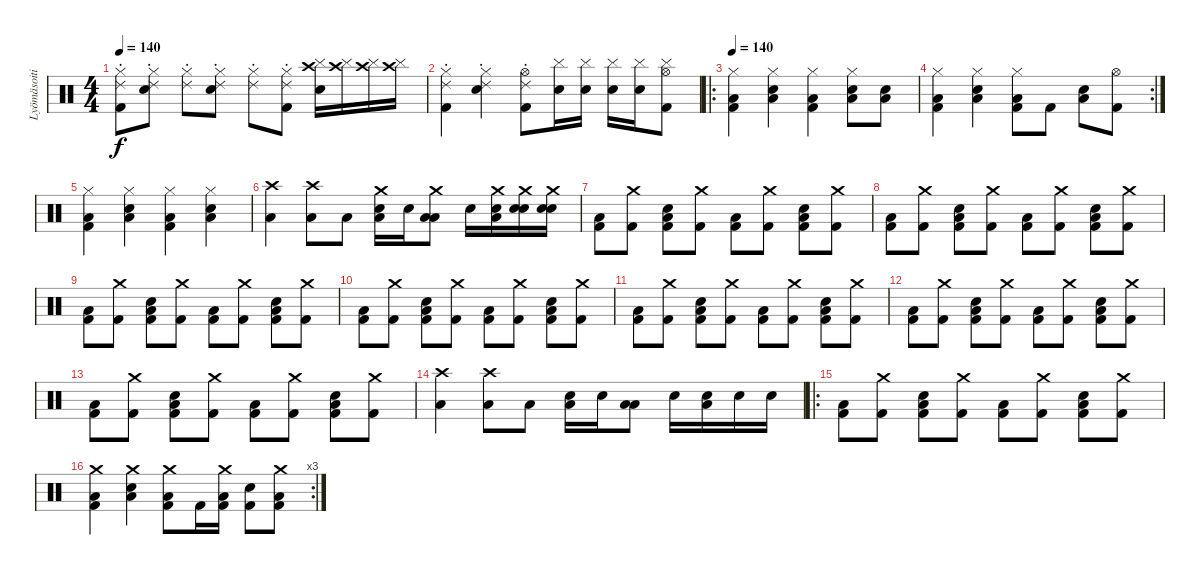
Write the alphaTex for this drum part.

\track ("Lyömäsoitin" "Lyömäsoiti") {instrument percussion}
\staff {score}
\articulation defaults
\ts (4 4)
\tempo 140
\tempo 120
\tempo 140
\clef neutral
\ks c
("Hi-Hat (closed)" "Ride (choke) 2" "Kick (hit) 2").8{dy f} ("Hi-Hat (closed)" "Ride (choke) 2" "Snare (hit) 2").8 ("Hi-Hat (closed)" "Ride (choke) 2").8 ("Hi-Hat (closed)" "Ride (choke) 2" "Snare (hit) 2").8 ("Hi-Hat (closed)" "Ride (choke) 2").8 ("Hi-Hat (closed)" "Ride (choke) 2" "Kick (hit) 2").8 ("Crash high (hit)" "Cymbal (hit)" "Snare (hit) 2").16 ("Crash high (hit)" "Cymbal (hit)").16 ("Crash high (hit)" "Cymbal (hit)").16 ("Crash high (hit)" "Cymbal (hit)").16 |
("Hi-Hat (closed)" "Ride (choke) 2" "Kick (hit) 2").4 ("Hi-Hat (closed)" "Ride (choke) 2" "Snare (hit) 2").4 ("Hi-Hat (open)" "Ride (choke) 2" "Kick (hit) 2").8 ("Cymbal (hit)" "Snare (hit) 2").16 ("Cymbal (hit)" "Snare (hit) 2").16 ("Cymbal (hit)" "Snare (hit) 2").16 ("Cymbal (hit)" "Snare (hit) 2").16 ("Hi-Hat (open)" "Cymbal (hit)" "Kick (hit) 2").8 |
\ro
\tempo 140
("Hi-Hat (closed)" "Low Floor Tom (hit)" "Kick (hit) 2").4 ("Hi-Hat (closed)" "Low Floor Tom (hit)" "Snare (hit) 2").4 ("Hi-Hat (closed)" "Low Floor Tom (hit)" "Kick (hit) 2").4 ("Hi-Hat (closed)" "Low Floor Tom (hit)" "Snare (hit) 2").8 ("Low Tom (hit)" "Snare (hit) 2").8 |
\rc 2
("Hi-Hat (closed)" "Low Floor Tom (hit)" "Kick (hit) 2").4 ("Hi-Hat (closed)" "Low Floor Tom (hit)" "Snare (hit) 2").4 ("Hi-Hat (closed)" "Low Floor Tom (hit)" "Kick (hit) 2").8 "Kick (hit) 2".8 ("Low Floor Tom (hit)" "Snare (hit) 2").8 ("Hi-Hat (open)" "Kick (hit) 2").8 |
("Hi-Hat (closed)" "Low Floor Tom (hit)" "Kick (hit) 2").4 ("Hi-Hat (closed)" "Low Floor Tom (hit)" "Snare (hit) 2").4 ("Hi-Hat (closed)" "Low Floor Tom (hit)" "Kick (hit) 2").4 ("Hi-Hat (closed)" "Low Floor Tom (hit)" "Snare (hit) 2").4 |
("Crash high (hit)" "Low Floor Tom (hit)").4 ("Crash high (hit)" "Low Floor Tom (hit)").8 "Low Tom (hit)".8 ("Crash medium (hit)" "Low Floor Tom (hit)" "Snare (hit) 2").16 "Snare (hit) 2".16 ("Crash medium (hit)" "Low Floor Tom (hit)" "Low Tom (hit)").8 "Snare (hit) 2".16 ("Crash medium (hit)" "Low Floor Tom (hit)" "Snare (hit) 2").16 ("Crash medium (hit)" "Electric Snare (hit)" "Snare (hit) 2").16 ("Crash medium (hit)" "Electric Snare (hit)" "Snare (hit) 2").16 |
("Low Floor Tom (hit)" "Kick (hit) 2").8 ("Crash medium (hit)" "Kick (hit) 2").8 ("Low Floor Tom (hit)" "Snare (hit) 2" "Kick (hit) 2").8 ("Crash medium (hit)" "Kick (hit) 2").8 ("Low Floor Tom (hit)" "Kick (hit) 2").8 ("Crash medium (hit)" "Kick (hit) 2").8 ("Low Floor Tom (hit)" "Snare (hit) 2" "Kick (hit) 2").8 ("Crash medium (hit)" "Kick (hit) 2").8 |
("Low Floor Tom (hit)" "Kick (hit) 2").8 ("Crash medium (hit)" "Kick (hit) 2").8 ("Low Floor Tom (hit)" "Snare (hit) 2" "Kick (hit) 2").8 ("Crash medium (hit)" "Kick (hit) 2").8 ("Low Floor Tom (hit)" "Kick (hit) 2").8 ("Crash medium (hit)" "Kick (hit) 2").8 ("Low Floor Tom (hit)" "Snare (hit) 2" "Kick (hit) 2").8 ("Crash medium (hit)" "Kick (hit) 2").8 |
("Low Floor Tom (hit)" "Kick (hit) 2").8 ("Crash medium (hit)" "Kick (hit) 2").8 ("Low Floor Tom (hit)" "Snare (hit) 2" "Kick (hit) 2").8 ("Crash medium (hit)" "Kick (hit) 2").8 ("Low Floor Tom (hit)" "Kick (hit) 2").8 ("Crash medium (hit)" "Kick (hit) 2").8 ("Low Floor Tom (hit)" "Snare (hit) 2" "Kick (hit) 2").8 ("Crash medium (hit)" "Kick (hit) 2").8 |
("Low Floor Tom (hit)" "Kick (hit) 2").8 ("Crash medium (hit)" "Kick (hit) 2").8 ("Low Floor Tom (hit)" "Snare (hit) 2" "Kick (hit) 2").8 ("Crash medium (hit)" "Kick (hit) 2").8 ("Low Floor Tom (hit)" "Kick (hit) 2").8 ("Crash medium (hit)" "Kick (hit) 2").8 ("Low Floor Tom (hit)" "Snare (hit) 2" "Kick (hit) 2").8 ("Crash medium (hit)" "Kick (hit) 2").8 |
("Low Floor Tom (hit)" "Kick (hit) 2").8 ("Crash medium (hit)" "Kick (hit) 2").8 ("Low Floor Tom (hit)" "Snare (hit) 2" "Kick (hit) 2").8 ("Crash medium (hit)" "Kick (hit) 2").8 ("Low Floor Tom (hit)" "Kick (hit) 2").8 ("Crash medium (hit)" "Kick (hit) 2").8 ("Low Floor Tom (hit)" "Snare (hit) 2" "Kick (hit) 2").8 ("Crash medium (hit)" "Kick (hit) 2").8 |
("Low Floor Tom (hit)" "Kick (hit) 2").8 ("Crash medium (hit)" "Kick (hit) 2").8 ("Low Floor Tom (hit)" "Snare (hit) 2" "Kick (hit) 2").8 ("Crash medium (hit)" "Kick (hit) 2").8 ("Low Floor Tom (hit)" "Kick (hit) 2").8 ("Crash medium (hit)" "Kick (hit) 2").8 ("Low Floor Tom (hit)" "Snare (hit) 2" "Kick (hit) 2").8 ("Crash medium (hit)" "Kick (hit) 2").8 |
("Low Floor Tom (hit)" "Kick (hit) 2").8 ("Crash medium (hit)" "Kick (hit) 2").8 ("Low Floor Tom (hit)" "Snare (hit) 2" "Kick (hit) 2").8 ("Crash medium (hit)" "Kick (hit) 2").8 ("Low Floor Tom (hit)" "Kick (hit) 2").8 ("Crash medium (hit)" "Kick (hit) 2").8 ("Low Floor Tom (hit)" "Snare (hit) 2" "Kick (hit) 2").8 ("Crash medium (hit)" "Kick (hit) 2").8 |
("Crash high (hit)" "Low Floor Tom (hit)").4 ("Crash high (hit)" "Low Floor Tom (hit)").8 "Low Tom (hit)".8 ("Low Floor Tom (hit)" "Snare (hit) 2").16 "Snare (hit) 2".16 ("Low Tom (hit)" "Low Floor Tom (hit)").8 "Snare (hit) 2".16 ("Low Floor Tom (hit)" "Snare (hit) 2").16 "Snare (hit) 2".16 "Snare (hit) 2".16 |
\ro
("Low Floor Tom (hit)" "Kick (hit) 2").8 ("Crash medium (hit)" "Kick (hit) 2").8 ("Low Floor Tom (hit)" "Snare (hit) 2" "Kick (hit) 2").8 ("Crash medium (hit)" "Kick (hit) 2").8 ("Low Floor Tom (hit)" "Kick (hit) 2").8 ("Crash medium (hit)" "Kick (hit) 2").8 ("Low Floor Tom (hit)" "Snare (hit) 2" "Kick (hit) 2").8 ("Crash medium (hit)" "Kick (hit) 2").8 |
\rc 3
("Crash medium (hit)" "Low Floor Tom (hit)" "Kick (hit) 2").4 ("Crash medium (hit)" "Low Floor Tom (hit)" "Snare (hit) 2").4 ("Crash medium (hit)" "Low Floor Tom (hit)" "Kick (hit) 2").8 "Kick (hit) 2".16 ("Crash medium (hit)" "Low Floor Tom (hit)" "Kick (hit) 2").16 ("Snare (hit) 2" "Kick (hit) 2").8 ("Crash medium (hit)" "Low Floor Tom (hit)" "Kick (hit) 2").8
